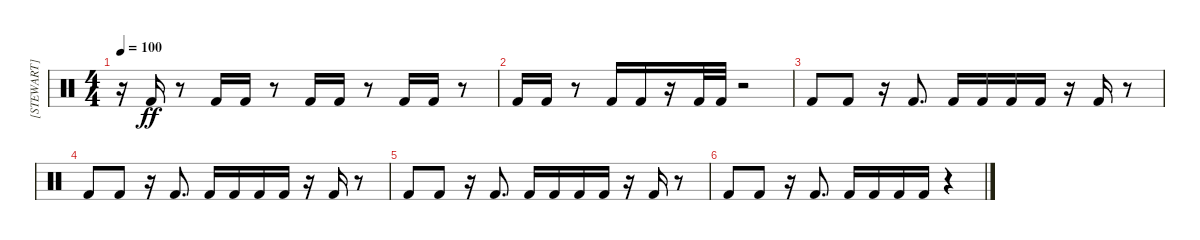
\track ("[STEWART] (бас)" "[STEWART] ") {instrument percussion}
\staff {score}
\articulation defaults
\ts (4 4)
\tempo 100
\clef neutral
\ks c
r.16{dy ff} "Kick (hit) 2".16 r.8 "Kick (hit) 2".16 "Kick (hit) 2".16 r.8 "Kick (hit) 2".16 "Kick (hit) 2".16 r.8 "Kick (hit) 2".16 "Kick (hit) 2".16 r.8 |
"Kick (hit) 2".16 "Kick (hit) 2".16 r.8 "Kick (hit) 2".16 "Kick (hit) 2".16 r.16 "Kick (hit) 2".32 "Kick (hit) 2".32 r.2 |
"Kick (hit) 2".8 "Kick (hit) 2".8 r.16 "Kick (hit) 2".8{d} "Kick (hit) 2".16 "Kick (hit) 2".16 "Kick (hit) 2".16 "Kick (hit) 2".16 r.16 "Kick (hit) 2".16 r.8 |
"Kick (hit) 2".8 "Kick (hit) 2".8 r.16 "Kick (hit) 2".8{d} "Kick (hit) 2".16 "Kick (hit) 2".16 "Kick (hit) 2".16 "Kick (hit) 2".16 r.16 "Kick (hit) 2".16 r.8 |
"Kick (hit) 2".8 "Kick (hit) 2".8 r.16 "Kick (hit) 2".8{d} "Kick (hit) 2".16 "Kick (hit) 2".16 "Kick (hit) 2".16 "Kick (hit) 2".16 r.16 "Kick (hit) 2".16 r.8 |
"Kick (hit) 2".8 "Kick (hit) 2".8 r.16 "Kick (hit) 2".8{d} "Kick (hit) 2".16 "Kick (hit) 2".16 "Kick (hit) 2".16 "Kick (hit) 2".16 r.4
